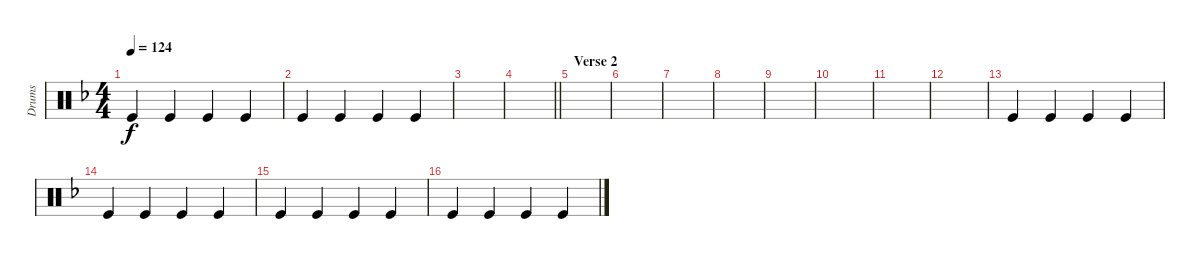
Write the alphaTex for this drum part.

\track ("Drums" "Drums") {instrument percussion}
\staff {score}
\articulation defaults
\ts (4 4)
\tempo 124
\clef neutral
\ks f "Kick (hit)".4{dy f} "Kick (hit)".4 "Kick (hit)".4 "Kick (hit)".4
|
"Kick (hit)".4 "Kick (hit)".4 "Kick (hit)".4 "Kick (hit)".4 |
|
\barLineRight lightlight
|
\section ("" "Verse 2")
|
|
|
|
|
|
|
|
"Kick (hit)".4 "Kick (hit)".4 "Kick (hit)".4 "Kick (hit)".4 |
"Kick (hit)".4 "Kick (hit)".4 "Kick (hit)".4 "Kick (hit)".4 |
"Kick (hit)".4 "Kick (hit)".4 "Kick (hit)".4 "Kick (hit)".4 |
"Kick (hit)".4 "Kick (hit)".4 "Kick (hit)".4 "Kick (hit)".4
